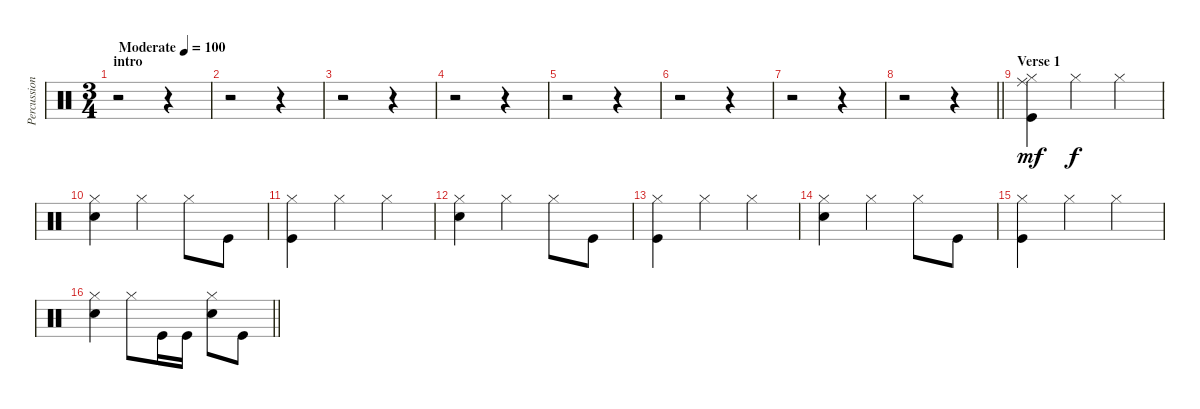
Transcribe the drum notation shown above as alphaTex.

\track ("Percussion" "Percussion") {instrument percussion}
\staff {score}
\articulation defaults
\ts (3 4)
\section ("" "intro")
\tempo (100 "Moderate")
\clef neutral
\ks aminor
r.2{dy mf} r.4 |
r.2 r.4 |
r.2 r.4 |
r.2 r.4 |
r.2 r.4 |
r.2 r.4 |
r.2 r.4 |
\barLineRight lightlight
r.2 r.4 |
\section ("" "Verse 1")
("Hi-Hat (closed)" "Ride (middle)" "Kick (hit)").4 "Hi-Hat (closed)".4{dy f} "Hi-Hat (closed)".4 |
("Hi-Hat (closed)" "Snare (hit) 2").4 "Hi-Hat (closed)".4 "Hi-Hat (closed)".8 "Kick (hit)".8 |
("Hi-Hat (closed)" "Kick (hit)").4 "Hi-Hat (closed)".4 "Hi-Hat (closed)".4 |
("Hi-Hat (closed)" "Snare (hit) 2").4 "Hi-Hat (closed)".4 "Hi-Hat (closed)".8 "Kick (hit)".8 |
("Hi-Hat (closed)" "Kick (hit)").4 "Hi-Hat (closed)".4 "Hi-Hat (closed)".4 |
("Hi-Hat (closed)" "Snare (hit) 2").4 "Hi-Hat (closed)".4 "Hi-Hat (closed)".8 "Kick (hit)".8 |
("Hi-Hat (closed)" "Kick (hit)").4 "Hi-Hat (closed)".4 "Hi-Hat (closed)".4 |
\barLineRight lightlight
("Hi-Hat (closed)" "Snare (hit) 2").4 "Hi-Hat (closed)".8 "Kick (hit)".16 "Kick (hit)".16 ("Hi-Hat (closed)" "Snare (hit) 2").8 "Kick (hit)".8
